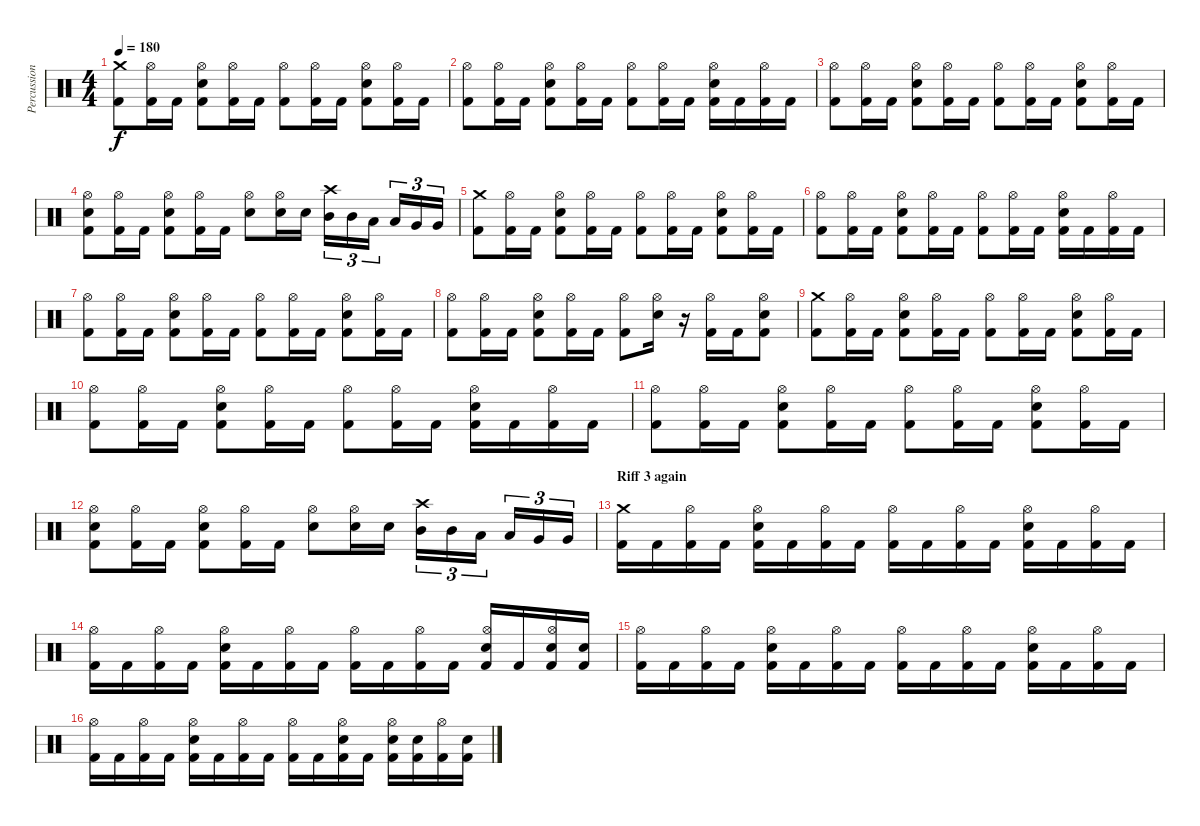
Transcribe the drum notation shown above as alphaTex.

\track ("Percussion" "Percussion") {instrument percussion}
\staff {score}
\articulation defaults
\ts (4 4)
\tempo 180
\clef neutral
\ks c
("Crash medium (hit)" "Kick (hit) 2").8{dy f} ("Hi-Hat (open)" "Kick (hit) 2").16 "Kick (hit) 2".16 ("Kick (hit) 2" "Hi-Hat (open)" "Snare (hit) 2").8 ("Hi-Hat (open)" "Kick (hit) 2").16 "Kick (hit) 2".16 ("Hi-Hat (open)" "Kick (hit) 2").8 ("Hi-Hat (open)" "Kick (hit) 2").16 "Kick (hit) 2".16 ("Kick (hit) 2" "Hi-Hat (open)" "Snare (hit) 2").8 ("Hi-Hat (open)" "Kick (hit) 2").16 "Kick (hit) 2".16 |
("Hi-Hat (open)" "Kick (hit) 2").8 ("Hi-Hat (open)" "Kick (hit) 2").16 "Kick (hit) 2".16 ("Kick (hit) 2" "Hi-Hat (open)" "Snare (hit) 2").8 ("Hi-Hat (open)" "Kick (hit) 2").16 "Kick (hit) 2".16 ("Hi-Hat (open)" "Kick (hit) 2").8 ("Hi-Hat (open)" "Kick (hit) 2").16 "Kick (hit) 2".16 ("Kick (hit) 2" "Hi-Hat (open)" "Snare (hit) 2").16 "Kick (hit) 2".16 ("Hi-Hat (open)" "Kick (hit) 2").16 "Kick (hit) 2".16 |
("Hi-Hat (open)" "Kick (hit) 2").8 ("Hi-Hat (open)" "Kick (hit) 2").16 "Kick (hit) 2".16 ("Kick (hit) 2" "Hi-Hat (open)" "Snare (hit) 2").8 ("Hi-Hat (open)" "Kick (hit) 2").16 "Kick (hit) 2".16 ("Hi-Hat (open)" "Kick (hit) 2").8 ("Hi-Hat (open)" "Kick (hit) 2").16 "Kick (hit) 2".16 ("Kick (hit) 2" "Hi-Hat (open)" "Snare (hit) 2").8 ("Hi-Hat (open)" "Kick (hit) 2").16 "Kick (hit) 2".16 |
("Kick (hit) 2" "Hi-Hat (open)" "Snare (hit) 2").8 ("Hi-Hat (open)" "Kick (hit) 2").16 "Kick (hit) 2".16 ("Kick (hit) 2" "Hi-Hat (open)" "Snare (hit) 2").8 ("Hi-Hat (open)" "Kick (hit) 2").16 "Kick (hit) 2".16 ("Hi-Hat (open)" "Snare (hit) 2").8 ("Hi-Hat (open)" "Snare (hit) 2").16 "Snare (hit) 2".16 ("Crash high (hit)" "Mid Tom (hit)").16{tu (3 2)} "Mid Tom (hit)".16{tu (3 2)} "Low Tom (hit)".16{tu (3 2)} "Low Tom (hit)".16{tu (3 2)} "Very Low Tom (hit)".16{tu (3 2)} "Very Low Tom (hit)".16{tu (3 2)} |
("Crash medium (hit)" "Kick (hit) 2").8 ("Hi-Hat (open)" "Kick (hit) 2").16 "Kick (hit) 2".16 ("Kick (hit) 2" "Hi-Hat (open)" "Snare (hit) 2").8 ("Hi-Hat (open)" "Kick (hit) 2").16 "Kick (hit) 2".16 ("Hi-Hat (open)" "Kick (hit) 2").8 ("Hi-Hat (open)" "Kick (hit) 2").16 "Kick (hit) 2".16 ("Kick (hit) 2" "Hi-Hat (open)" "Snare (hit) 2").8 ("Hi-Hat (open)" "Kick (hit) 2").16 "Kick (hit) 2".16 |
("Hi-Hat (open)" "Kick (hit) 2").8 ("Hi-Hat (open)" "Kick (hit) 2").16 "Kick (hit) 2".16 ("Kick (hit) 2" "Hi-Hat (open)" "Snare (hit) 2").8 ("Hi-Hat (open)" "Kick (hit) 2").16 "Kick (hit) 2".16 ("Hi-Hat (open)" "Kick (hit) 2").8 ("Hi-Hat (open)" "Kick (hit) 2").16 "Kick (hit) 2".16 ("Kick (hit) 2" "Hi-Hat (open)" "Snare (hit) 2").16 "Kick (hit) 2".16 ("Hi-Hat (open)" "Kick (hit) 2").16 "Kick (hit) 2".16 |
("Hi-Hat (open)" "Kick (hit) 2").8 ("Hi-Hat (open)" "Kick (hit) 2").16 "Kick (hit) 2".16 ("Kick (hit) 2" "Hi-Hat (open)" "Snare (hit) 2").8 ("Hi-Hat (open)" "Kick (hit) 2").16 "Kick (hit) 2".16 ("Hi-Hat (open)" "Kick (hit) 2").8 ("Hi-Hat (open)" "Kick (hit) 2").16 "Kick (hit) 2".16 ("Kick (hit) 2" "Hi-Hat (open)" "Snare (hit) 2").8 ("Hi-Hat (open)" "Kick (hit) 2").16 "Kick (hit) 2".16 |
("Hi-Hat (open)" "Kick (hit) 2").8 ("Hi-Hat (open)" "Kick (hit) 2").16 "Kick (hit) 2".16 ("Kick (hit) 2" "Hi-Hat (open)" "Snare (hit) 2").8 ("Hi-Hat (open)" "Kick (hit) 2").16 "Kick (hit) 2".16 ("Hi-Hat (open)" "Kick (hit) 2").8 ("Hi-Hat (open)" "Snare (hit) 2").16 r.16 ("Hi-Hat (open)" "Kick (hit) 2").16 "Kick (hit) 2".16 ("Kick (hit) 2" "Hi-Hat (open)" "Snare (hit) 2").8 |
("Crash medium (hit)" "Kick (hit) 2").8 ("Hi-Hat (open)" "Kick (hit) 2").16 "Kick (hit) 2".16 ("Kick (hit) 2" "Hi-Hat (open)" "Snare (hit) 2").8 ("Hi-Hat (open)" "Kick (hit) 2").16 "Kick (hit) 2".16 ("Hi-Hat (open)" "Kick (hit) 2").8 ("Hi-Hat (open)" "Kick (hit) 2").16 "Kick (hit) 2".16 ("Kick (hit) 2" "Hi-Hat (open)" "Snare (hit) 2").8 ("Hi-Hat (open)" "Kick (hit) 2").16 "Kick (hit) 2".16 |
("Hi-Hat (open)" "Kick (hit) 2").8 ("Hi-Hat (open)" "Kick (hit) 2").16 "Kick (hit) 2".16 ("Kick (hit) 2" "Hi-Hat (open)" "Snare (hit) 2").8 ("Hi-Hat (open)" "Kick (hit) 2").16 "Kick (hit) 2".16 ("Hi-Hat (open)" "Kick (hit) 2").8 ("Hi-Hat (open)" "Kick (hit) 2").16 "Kick (hit) 2".16 ("Kick (hit) 2" "Hi-Hat (open)" "Snare (hit) 2").16 "Kick (hit) 2".16 ("Hi-Hat (open)" "Kick (hit) 2").16 "Kick (hit) 2".16 |
("Hi-Hat (open)" "Kick (hit) 2").8 ("Hi-Hat (open)" "Kick (hit) 2").16 "Kick (hit) 2".16 ("Kick (hit) 2" "Hi-Hat (open)" "Snare (hit) 2").8 ("Hi-Hat (open)" "Kick (hit) 2").16 "Kick (hit) 2".16 ("Hi-Hat (open)" "Kick (hit) 2").8 ("Hi-Hat (open)" "Kick (hit) 2").16 "Kick (hit) 2".16 ("Kick (hit) 2" "Hi-Hat (open)" "Snare (hit) 2").8 ("Hi-Hat (open)" "Kick (hit) 2").16 "Kick (hit) 2".16 |
("Kick (hit) 2" "Hi-Hat (open)" "Snare (hit) 2").8 ("Hi-Hat (open)" "Kick (hit) 2").16 "Kick (hit) 2".16 ("Kick (hit) 2" "Hi-Hat (open)" "Snare (hit) 2").8 ("Hi-Hat (open)" "Kick (hit) 2").16 "Kick (hit) 2".16 ("Hi-Hat (open)" "Snare (hit) 2").8 ("Hi-Hat (open)" "Snare (hit) 2").16 "Snare (hit) 2".16 ("Crash high (hit)" "Mid Tom (hit)").16{tu (3 2)} "Mid Tom (hit)".16{tu (3 2)} "Low Tom (hit)".16{tu (3 2)} "Low Tom (hit)".16{tu (3 2)} "Very Low Tom (hit)".16{tu (3 2)} "Very Low Tom (hit)".16{tu (3 2)} |
\section ("" "Riff 3 again")
("Crash medium (hit)" "Kick (hit) 2").16 "Kick (hit) 2".16 ("Hi-Hat (open)" "Kick (hit) 2").16 "Kick (hit) 2".16 ("Kick (hit) 2" "Hi-Hat (open)" "Snare (hit) 2").16 "Kick (hit) 2".16 ("Hi-Hat (open)" "Kick (hit) 2").16 "Kick (hit) 2".16 ("Hi-Hat (open)" "Kick (hit) 2").16 "Kick (hit) 2".16 ("Hi-Hat (open)" "Kick (hit) 2").16 "Kick (hit) 2".16 ("Kick (hit) 2" "Hi-Hat (open)" "Snare (hit) 2").16 "Kick (hit) 2".16 ("Hi-Hat (open)" "Kick (hit) 2").16 "Kick (hit) 2".16 |
("Hi-Hat (open)" "Kick (hit) 2").16 "Kick (hit) 2".16 ("Hi-Hat (open)" "Kick (hit) 2").16 "Kick (hit) 2".16 ("Kick (hit) 2" "Hi-Hat (open)" "Snare (hit) 2").16 "Kick (hit) 2".16 ("Hi-Hat (open)" "Kick (hit) 2").16 "Kick (hit) 2".16 ("Hi-Hat (open)" "Kick (hit) 2").16 "Kick (hit) 2".16 ("Hi-Hat (open)" "Kick (hit) 2").16 "Kick (hit) 2".16 ("Kick (hit) 2" "Hi-Hat (open)" "Snare (hit) 2").16 "Kick (hit) 2".16 ("Kick (hit) 2" "Hi-Hat (open)" "Snare (hit) 2").16 ("Kick (hit) 2" "Snare (hit) 2").16 |
("Hi-Hat (open)" "Kick (hit) 2").16 "Kick (hit) 2".16 ("Hi-Hat (open)" "Kick (hit) 2").16 "Kick (hit) 2".16 ("Kick (hit) 2" "Hi-Hat (open)" "Snare (hit) 2").16 "Kick (hit) 2".16 ("Hi-Hat (open)" "Kick (hit) 2").16 "Kick (hit) 2".16 ("Hi-Hat (open)" "Kick (hit) 2").16 "Kick (hit) 2".16 ("Hi-Hat (open)" "Kick (hit) 2").16 "Kick (hit) 2".16 ("Kick (hit) 2" "Hi-Hat (open)" "Snare (hit) 2").16 "Kick (hit) 2".16 ("Hi-Hat (open)" "Kick (hit) 2").16 "Kick (hit) 2".16 |
("Hi-Hat (open)" "Kick (hit) 2").16 "Kick (hit) 2".16 ("Hi-Hat (open)" "Kick (hit) 2").16 "Kick (hit) 2".16 ("Kick (hit) 2" "Hi-Hat (open)" "Snare (hit) 2").16 "Kick (hit) 2".16 ("Hi-Hat (open)" "Kick (hit) 2").16 "Kick (hit) 2".16 ("Hi-Hat (open)" "Kick (hit) 2").16 "Kick (hit) 2".16 ("Kick (hit) 2" "Hi-Hat (open)" "Snare (hit) 2").16 "Kick (hit) 2".16 ("Kick (hit) 2" "Hi-Hat (open)" "Snare (hit) 2").16 ("Kick (hit) 2" "Snare (hit) 2").16 ("Hi-Hat (open)" "Kick (hit) 2").16 ("Kick (hit) 2" "Snare (hit) 2").16
